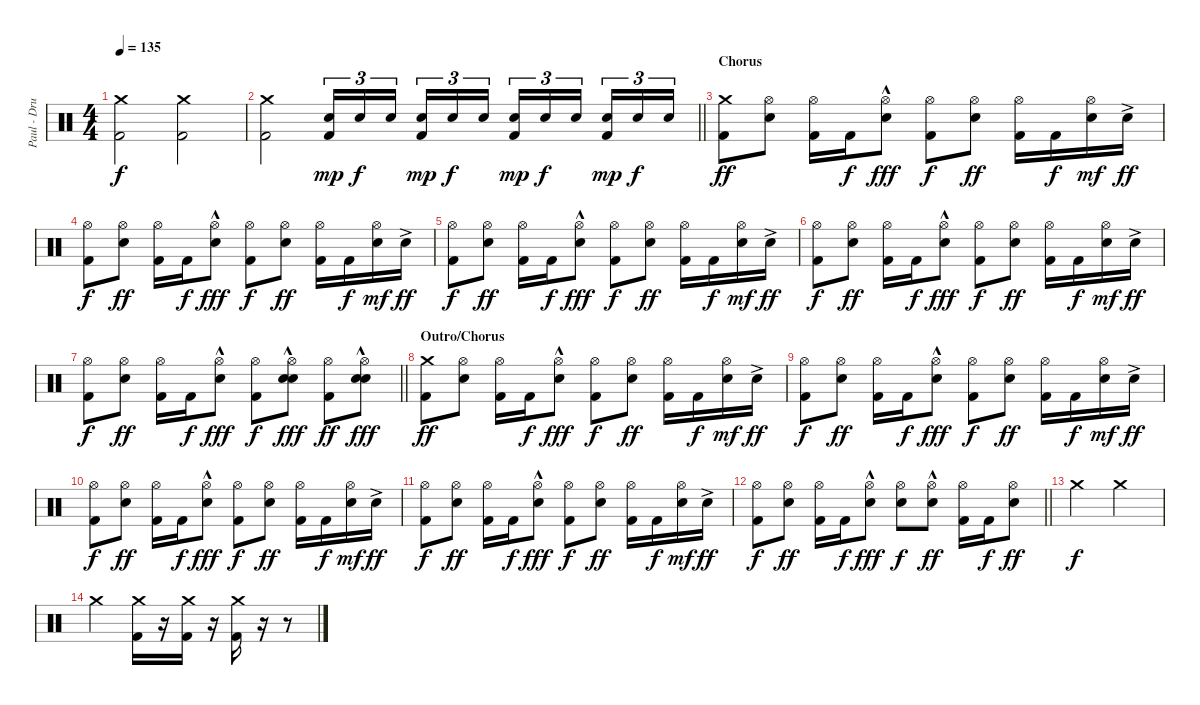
\track ("Paul - Drums" "Paul - Dru") {instrument percussion}
\staff {score}
\articulation defaults
\ts (4 4)
\tempo 135
\clef neutral
\ks c
("Crash medium (hit)" "Kick (hit) 2").2{dy f} ("Crash medium (hit)" "Kick (hit) 2").2 |
\barLineRight lightlight
("Crash medium (hit)" "Kick (hit) 2").2 ("Electric Snare (hit)" "Kick (hit) 2").16{tu (3 2) dy mp} "Electric Snare (hit)".16{tu (3 2) dy f} "Electric Snare (hit)".16{tu (3 2) beam splitsecondary} ("Electric Snare (hit)" "Kick (hit) 2").16{tu (3 2) dy mp} "Electric Snare (hit)".16{tu (3 2) dy f} "Electric Snare (hit)".16{tu (3 2)} ("Electric Snare (hit)" "Kick (hit) 2").16{tu (3 2) dy mp} "Electric Snare (hit)".16{tu (3 2) dy f} "Electric Snare (hit)".16{tu (3 2) beam splitsecondary} ("Electric Snare (hit)" "Kick (hit) 2").16{tu (3 2) dy mp} "Electric Snare (hit)".16{tu (3 2) dy f} "Electric Snare (hit)".16{tu (3 2)} |
\section ("" "Chorus")
("Crash medium (hit)" "Kick (hit) 2").8{dy ff} ("Hi-Hat (open)" "Electric Snare (hit)").8 ("Hi-Hat (open)" "Kick (hit) 2").16 "Kick (hit) 2".16{dy f} ("Hi-Hat (open)" "Electric Snare (hit)"{hac}).8{dy fff} ("Hi-Hat (open)" "Kick (hit) 2").8{dy f} ("Hi-Hat (open)" "Electric Snare (hit)").8{dy ff} ("Hi-Hat (open)" "Kick (hit) 2").16 "Kick (hit) 2".16{dy f} ("Hi-Hat (open)" "Electric Snare (hit)").16{dy mf} "Electric Snare (hit)"{ac}.16{dy ff} |
("Hi-Hat (open)" "Kick (hit) 2").8{dy f} ("Hi-Hat (open)" "Electric Snare (hit)").8{dy ff} ("Hi-Hat (open)" "Kick (hit) 2").16 "Kick (hit) 2".16{dy f} ("Hi-Hat (open)" "Electric Snare (hit)"{hac}).8{dy fff} ("Hi-Hat (open)" "Kick (hit) 2").8{dy f} ("Hi-Hat (open)" "Electric Snare (hit)").8{dy ff} ("Hi-Hat (open)" "Kick (hit) 2").16 "Kick (hit) 2".16{dy f} ("Hi-Hat (open)" "Electric Snare (hit)").16{dy mf} "Electric Snare (hit)"{ac}.16{dy ff} |
("Hi-Hat (open)" "Kick (hit) 2").8{dy f} ("Hi-Hat (open)" "Electric Snare (hit)").8{dy ff} ("Hi-Hat (open)" "Kick (hit) 2").16 "Kick (hit) 2".16{dy f} ("Hi-Hat (open)" "Electric Snare (hit)"{hac}).8{dy fff} ("Hi-Hat (open)" "Kick (hit) 2").8{dy f} ("Hi-Hat (open)" "Electric Snare (hit)").8{dy ff} ("Hi-Hat (open)" "Kick (hit) 2").16 "Kick (hit) 2".16{dy f} ("Hi-Hat (open)" "Electric Snare (hit)").16{dy mf} "Electric Snare (hit)"{ac}.16{dy ff} |
("Hi-Hat (open)" "Kick (hit) 2").8{dy f} ("Hi-Hat (open)" "Electric Snare (hit)").8{dy ff} ("Hi-Hat (open)" "Kick (hit) 2").16 "Kick (hit) 2".16{dy f} ("Hi-Hat (open)" "Electric Snare (hit)"{hac}).8{dy fff} ("Hi-Hat (open)" "Kick (hit) 2").8{dy f} ("Hi-Hat (open)" "Electric Snare (hit)").8{dy ff} ("Hi-Hat (open)" "Kick (hit) 2").16 "Kick (hit) 2".16{dy f} ("Hi-Hat (open)" "Electric Snare (hit)").16{dy mf} "Electric Snare (hit)"{ac}.16{dy ff} |
\barLineRight lightlight
("Hi-Hat (open)" "Kick (hit) 2").8{dy f} ("Hi-Hat (open)" "Electric Snare (hit)").8{dy ff} ("Hi-Hat (open)" "Kick (hit) 2").16 "Kick (hit) 2".16{dy f} ("Hi-Hat (open)" "Electric Snare (hit)"{hac}).8{dy fff} ("Hi-Hat (open)" "Kick (hit) 2").8{dy f} ("Hi-Hat (open)" "Snare (hit) 2"{hac} "Electric Snare (hit)"{hac}).8{dy fff} ("Hi-Hat (open)" "Kick (hit) 2").8{dy ff} ("Hi-Hat (open)" "Snare (hit) 2"{hac} "Electric Snare (hit)"{hac}).8{dy fff} |
\section ("" "Outro/Chorus")
("Crash medium (hit)" "Kick (hit) 2").8{dy ff} ("Hi-Hat (open)" "Electric Snare (hit)").8 ("Hi-Hat (open)" "Kick (hit) 2").16 "Kick (hit) 2".16{dy f} ("Hi-Hat (open)" "Electric Snare (hit)"{hac}).8{dy fff} ("Hi-Hat (open)" "Kick (hit) 2").8{dy f} ("Hi-Hat (open)" "Electric Snare (hit)").8{dy ff} ("Hi-Hat (open)" "Kick (hit) 2").16 "Kick (hit) 2".16{dy f} ("Hi-Hat (open)" "Electric Snare (hit)").16{dy mf} "Electric Snare (hit)"{ac}.16{dy ff} |
("Hi-Hat (open)" "Kick (hit) 2").8{dy f} ("Hi-Hat (open)" "Electric Snare (hit)").8{dy ff} ("Hi-Hat (open)" "Kick (hit) 2").16 "Kick (hit) 2".16{dy f} ("Hi-Hat (open)" "Electric Snare (hit)"{hac}).8{dy fff} ("Hi-Hat (open)" "Kick (hit) 2").8{dy f} ("Hi-Hat (open)" "Electric Snare (hit)").8{dy ff} ("Hi-Hat (open)" "Kick (hit) 2").16 "Kick (hit) 2".16{dy f} ("Hi-Hat (open)" "Electric Snare (hit)").16{dy mf} "Electric Snare (hit)"{ac}.16{dy ff} |
("Hi-Hat (open)" "Kick (hit) 2").8{dy f} ("Hi-Hat (open)" "Electric Snare (hit)").8{dy ff} ("Hi-Hat (open)" "Kick (hit) 2").16 "Kick (hit) 2".16{dy f} ("Hi-Hat (open)" "Electric Snare (hit)"{hac}).8{dy fff} ("Hi-Hat (open)" "Kick (hit) 2").8{dy f} ("Hi-Hat (open)" "Electric Snare (hit)").8{dy ff} ("Hi-Hat (open)" "Kick (hit) 2").16 "Kick (hit) 2".16{dy f} ("Hi-Hat (open)" "Electric Snare (hit)").16{dy mf} "Electric Snare (hit)"{ac}.16{dy ff} |
("Hi-Hat (open)" "Kick (hit) 2").8{dy f} ("Hi-Hat (open)" "Electric Snare (hit)").8{dy ff} ("Hi-Hat (open)" "Kick (hit) 2").16 "Kick (hit) 2".16{dy f} ("Hi-Hat (open)" "Electric Snare (hit)"{hac}).8{dy fff} ("Hi-Hat (open)" "Kick (hit) 2").8{dy f} ("Hi-Hat (open)" "Electric Snare (hit)").8{dy ff} ("Hi-Hat (open)" "Kick (hit) 2").16 "Kick (hit) 2".16{dy f} ("Hi-Hat (open)" "Electric Snare (hit)").16{dy mf} "Electric Snare (hit)"{ac}.16{dy ff} |
\barLineRight lightlight
("Hi-Hat (open)" "Kick (hit) 2").8{dy f} ("Hi-Hat (open)" "Electric Snare (hit)").8{dy ff} ("Hi-Hat (open)" "Kick (hit) 2").16 "Kick (hit) 2".16{dy f} ("Hi-Hat (open)" "Electric Snare (hit)"{hac}).8{dy fff} ("Hi-Hat (open)" "Electric Snare (hit)").8{dy f} ("Hi-Hat (open)" "Electric Snare (hit)"{hac}).8{dy ff} ("Hi-Hat (open)" "Kick (hit) 2").16 "Kick (hit) 2".16{dy f} ("Hi-Hat (open)" "Electric Snare (hit)").8{dy ff} |
"Crash medium (hit)".2{dy f} "Crash medium (hit)".2 |
"Crash medium (hit)".2 ("Crash medium (hit)" "Kick (hit) 2").16 r.16{volume 0} ("Crash medium (hit)" "Kick (hit) 2").16{volume 12} r.16{volume 0} ("Crash medium (hit)" "Kick (hit) 2").16{volume 12} r.16{volume 0} r.8
